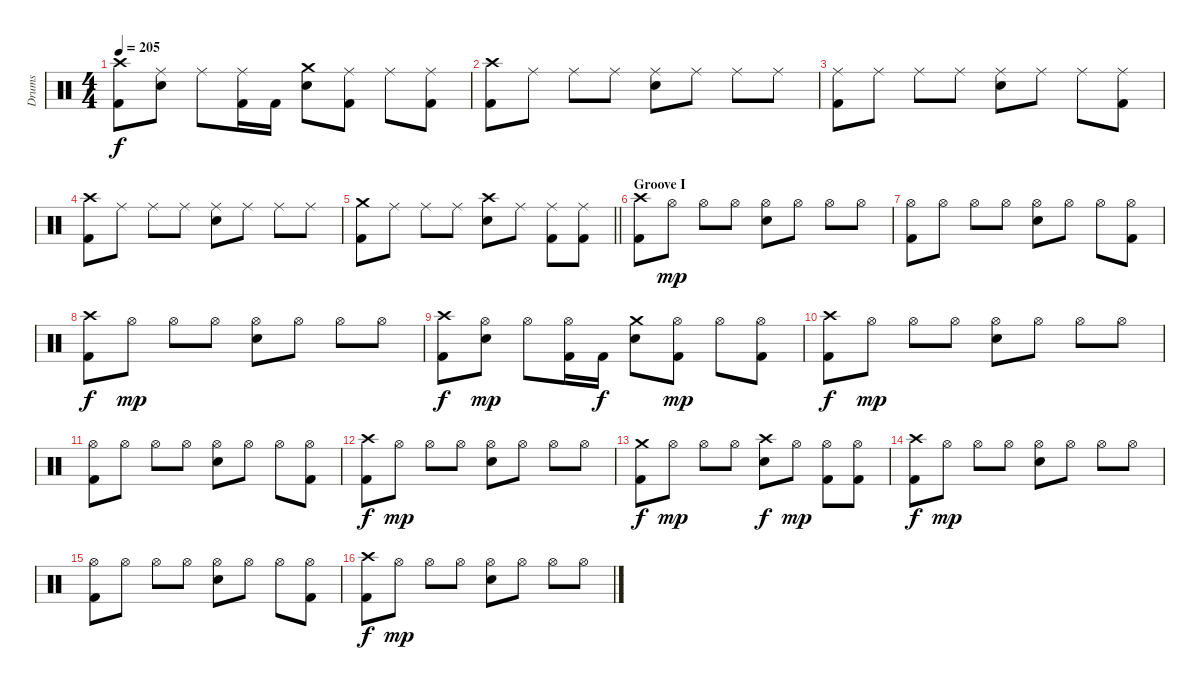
\track ("Drums" "Drums") {instrument percussion}
\staff {score}
\articulation defaults
\ts (4 4)
\tempo 205
\clef neutral
\ks c
("Crash high (hit)" "Kick (hit) 2").8{dy f} ("Ride (middle)" "Snare (hit) 2").8 "Ride (middle)".8 ("Ride (middle)" "Kick (hit) 2").16 "Kick (hit) 2".16 ("Crash medium (hit)" "Snare (hit) 2").8 ("Ride (middle)" "Kick (hit) 2").8 "Ride (middle)".8 ("Ride (middle)" "Kick (hit) 2").8 |
("Crash high (hit)" "Kick (hit) 2").8 "Ride (middle)".8 "Ride (middle)".8 "Ride (middle)".8 ("Ride (middle)" "Snare (hit) 2").8 "Ride (middle)".8 "Ride (middle)".8 "Ride (middle)".8 |
("Ride (middle)" "Kick (hit) 2").8 "Ride (middle)".8 "Ride (middle)".8 "Ride (middle)".8 ("Ride (middle)" "Snare (hit) 2").8 "Ride (middle)".8 "Ride (middle)".8 ("Ride (middle)" "Kick (hit) 2").8 |
("Crash high (hit)" "Kick (hit) 2").8 "Ride (middle)".8 "Ride (middle)".8 "Ride (middle)".8 ("Ride (middle)" "Snare (hit) 2").8 "Ride (middle)".8 "Ride (middle)".8 "Ride (middle)".8 |
\barLineRight lightlight
("Crash medium (hit)" "Kick (hit) 2").8 "Ride (middle)".8 "Ride (middle)".8 "Ride (middle)".8 ("Crash high (hit)" "Snare (hit) 2").8 "Ride (middle)".8 ("Ride (middle)" "Kick (hit) 2").8 ("Ride (middle)" "Kick (hit) 2").8 |
\section ("" "Groove I")
("Crash high (hit)" "Kick (hit) 2").8 "Hi-Hat (open)".8{dy mp} "Hi-Hat (open)".8 "Hi-Hat (open)".8 ("Hi-Hat (open)" "Snare (hit) 2").8 "Hi-Hat (open)".8 "Hi-Hat (open)".8 "Hi-Hat (open)".8 |
("Hi-Hat (open)" "Kick (hit) 2").8 "Hi-Hat (open)".8 "Hi-Hat (open)".8 "Hi-Hat (open)".8 ("Hi-Hat (open)" "Snare (hit) 2").8 "Hi-Hat (open)".8 "Hi-Hat (open)".8 ("Hi-Hat (open)" "Kick (hit) 2").8 |
("Crash high (hit)" "Kick (hit) 2").8{dy f} "Hi-Hat (open)".8{dy mp} "Hi-Hat (open)".8 "Hi-Hat (open)".8 ("Hi-Hat (open)" "Snare (hit) 2").8 "Hi-Hat (open)".8 "Hi-Hat (open)".8 "Hi-Hat (open)".8 |
("Crash high (hit)" "Kick (hit) 2").8{dy f} ("Hi-Hat (open)" "Snare (hit) 2").8{dy mp} "Hi-Hat (open)".8 ("Hi-Hat (open)" "Kick (hit) 2").16 "Kick (hit) 2".16{dy f} ("Crash medium (hit)" "Snare (hit) 2").8 ("Hi-Hat (open)" "Kick (hit) 2").8{dy mp} "Hi-Hat (open)".8 ("Hi-Hat (open)" "Kick (hit) 2").8 |
("Crash high (hit)" "Kick (hit) 2").8{dy f} "Hi-Hat (open)".8{dy mp} "Hi-Hat (open)".8 "Hi-Hat (open)".8 ("Hi-Hat (open)" "Snare (hit) 2").8 "Hi-Hat (open)".8 "Hi-Hat (open)".8 "Hi-Hat (open)".8 |
("Hi-Hat (open)" "Kick (hit) 2").8 "Hi-Hat (open)".8 "Hi-Hat (open)".8 "Hi-Hat (open)".8 ("Hi-Hat (open)" "Snare (hit) 2").8 "Hi-Hat (open)".8 "Hi-Hat (open)".8 ("Hi-Hat (open)" "Kick (hit) 2").8 |
("Crash high (hit)" "Kick (hit) 2").8{dy f} "Hi-Hat (open)".8{dy mp} "Hi-Hat (open)".8 "Hi-Hat (open)".8 ("Hi-Hat (open)" "Snare (hit) 2").8 "Hi-Hat (open)".8 "Hi-Hat (open)".8 "Hi-Hat (open)".8 |
("Crash medium (hit)" "Kick (hit) 2").8{dy f} "Hi-Hat (open)".8{dy mp} "Hi-Hat (open)".8 "Hi-Hat (open)".8 ("Crash high (hit)" "Snare (hit) 2").8{dy f} "Hi-Hat (open)".8{dy mp} ("Hi-Hat (open)" "Kick (hit) 2").8 ("Hi-Hat (open)" "Kick (hit) 2").8 |
("Crash high (hit)" "Kick (hit) 2").8{dy f} "Hi-Hat (open)".8{dy mp} "Hi-Hat (open)".8 "Hi-Hat (open)".8 ("Hi-Hat (open)" "Snare (hit) 2").8 "Hi-Hat (open)".8 "Hi-Hat (open)".8 "Hi-Hat (open)".8 |
("Hi-Hat (open)" "Kick (hit) 2").8 "Hi-Hat (open)".8 "Hi-Hat (open)".8 "Hi-Hat (open)".8 ("Hi-Hat (open)" "Snare (hit) 2").8 "Hi-Hat (open)".8 "Hi-Hat (open)".8 ("Hi-Hat (open)" "Kick (hit) 2").8 |
("Crash high (hit)" "Kick (hit) 2").8{dy f} "Hi-Hat (open)".8{dy mp} "Hi-Hat (open)".8 "Hi-Hat (open)".8 ("Hi-Hat (open)" "Snare (hit) 2").8 "Hi-Hat (open)".8 "Hi-Hat (open)".8 "Hi-Hat (open)".8
